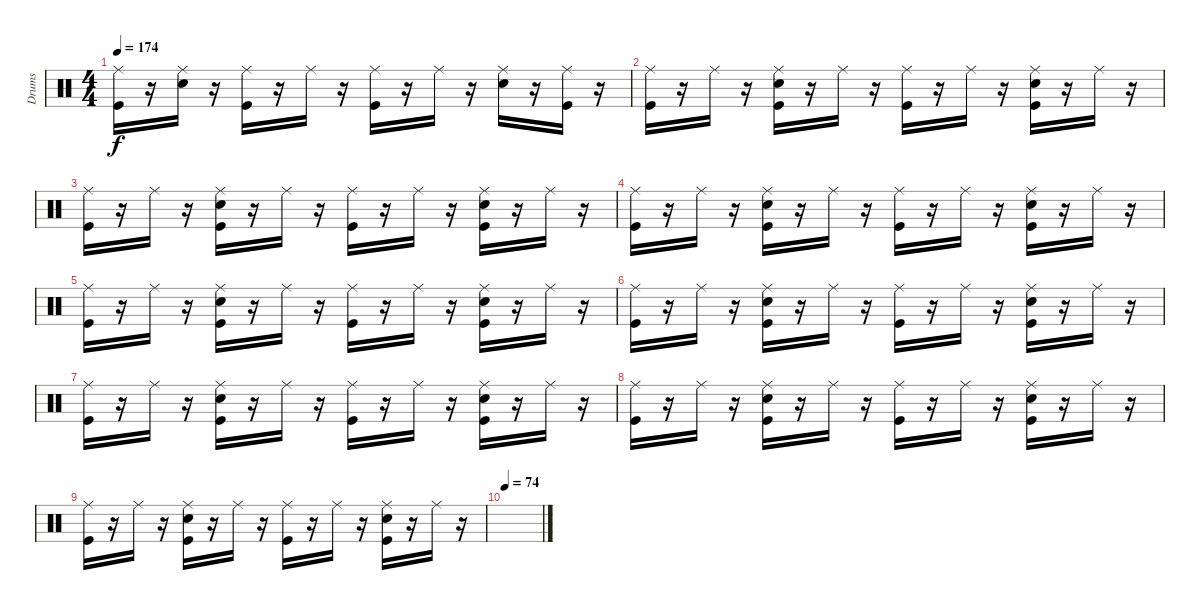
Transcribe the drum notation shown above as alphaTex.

\track ("Drums" "Drums") {instrument percussion}
\staff {score}
\articulation defaults
\ts (4 4)
\tempo 174
\clef neutral
\ks c
("Kick (hit)" "Ride (middle)").16{dy f} r.16 ("Snare (hit) 2" "Ride (middle)").16 r.16 ("Kick (hit)" "Ride (middle)").16 r.16 "Ride (middle)".16 r.16 ("Kick (hit)" "Ride (middle)").16 r.16 "Ride (middle)".16 r.16 ("Snare (hit) 2" "Ride (middle)").16 r.16 ("Kick (hit)" "Ride (middle)").16 r.16 |
("Kick (hit)" "Ride (middle)").16 r.16 "Ride (middle)".16 r.16 ("Kick (hit)" "Snare (hit) 2" "Ride (middle)").16 r.16 "Ride (middle)".16 r.16 ("Kick (hit)" "Ride (middle)").16 r.16 "Ride (middle)".16 r.16 ("Kick (hit)" "Snare (hit) 2" "Ride (middle)").16 r.16 "Ride (middle)".16 r.16 |
("Kick (hit)" "Ride (middle)").16 r.16 "Ride (middle)".16 r.16 ("Kick (hit)" "Snare (hit) 2" "Ride (middle)").16 r.16 "Ride (middle)".16 r.16 ("Kick (hit)" "Ride (middle)").16 r.16 "Ride (middle)".16 r.16 ("Kick (hit)" "Snare (hit) 2" "Ride (middle)").16 r.16 "Ride (middle)".16 r.16 |
("Kick (hit)" "Ride (middle)").16 r.16 "Ride (middle)".16 r.16 ("Kick (hit)" "Snare (hit) 2" "Ride (middle)").16 r.16 "Ride (middle)".16 r.16 ("Kick (hit)" "Ride (middle)").16 r.16 "Ride (middle)".16 r.16 ("Kick (hit)" "Snare (hit) 2" "Ride (middle)").16 r.16 "Ride (middle)".16 r.16 |
("Kick (hit)" "Ride (middle)").16 r.16 "Ride (middle)".16 r.16 ("Kick (hit)" "Snare (hit) 2" "Ride (middle)").16 r.16 "Ride (middle)".16 r.16 ("Kick (hit)" "Ride (middle)").16 r.16 "Ride (middle)".16 r.16 ("Kick (hit)" "Snare (hit) 2" "Ride (middle)").16 r.16 "Ride (middle)".16 r.16 |
("Kick (hit)" "Ride (middle)").16 r.16 "Ride (middle)".16 r.16 ("Kick (hit)" "Snare (hit) 2" "Ride (middle)").16 r.16 "Ride (middle)".16 r.16 ("Kick (hit)" "Ride (middle)").16 r.16 "Ride (middle)".16 r.16 ("Kick (hit)" "Snare (hit) 2" "Ride (middle)").16 r.16 "Ride (middle)".16 r.16 |
("Kick (hit)" "Ride (middle)").16 r.16 "Ride (middle)".16 r.16 ("Kick (hit)" "Snare (hit) 2" "Ride (middle)").16 r.16 "Ride (middle)".16 r.16 ("Kick (hit)" "Ride (middle)").16 r.16 "Ride (middle)".16 r.16 ("Kick (hit)" "Snare (hit) 2" "Ride (middle)").16 r.16 "Ride (middle)".16 r.16 |
("Kick (hit)" "Ride (middle)").16 r.16 "Ride (middle)".16 r.16 ("Kick (hit)" "Snare (hit) 2" "Ride (middle)").16 r.16 "Ride (middle)".16 r.16 ("Kick (hit)" "Ride (middle)").16 r.16 "Ride (middle)".16 r.16 ("Kick (hit)" "Snare (hit) 2" "Ride (middle)").16 r.16 "Ride (middle)".16 r.16 |
("Kick (hit)" "Ride (middle)").16 r.16 "Ride (middle)".16 r.16 ("Kick (hit)" "Snare (hit) 2" "Ride (middle)").16 r.16 "Ride (middle)".16 r.16 ("Kick (hit)" "Ride (middle)").16 r.16 "Ride (middle)".16 r.16 ("Kick (hit)" "Snare (hit) 2" "Ride (middle)").16 r.16 "Ride (middle)".16 r.16 |
\tempo 74
